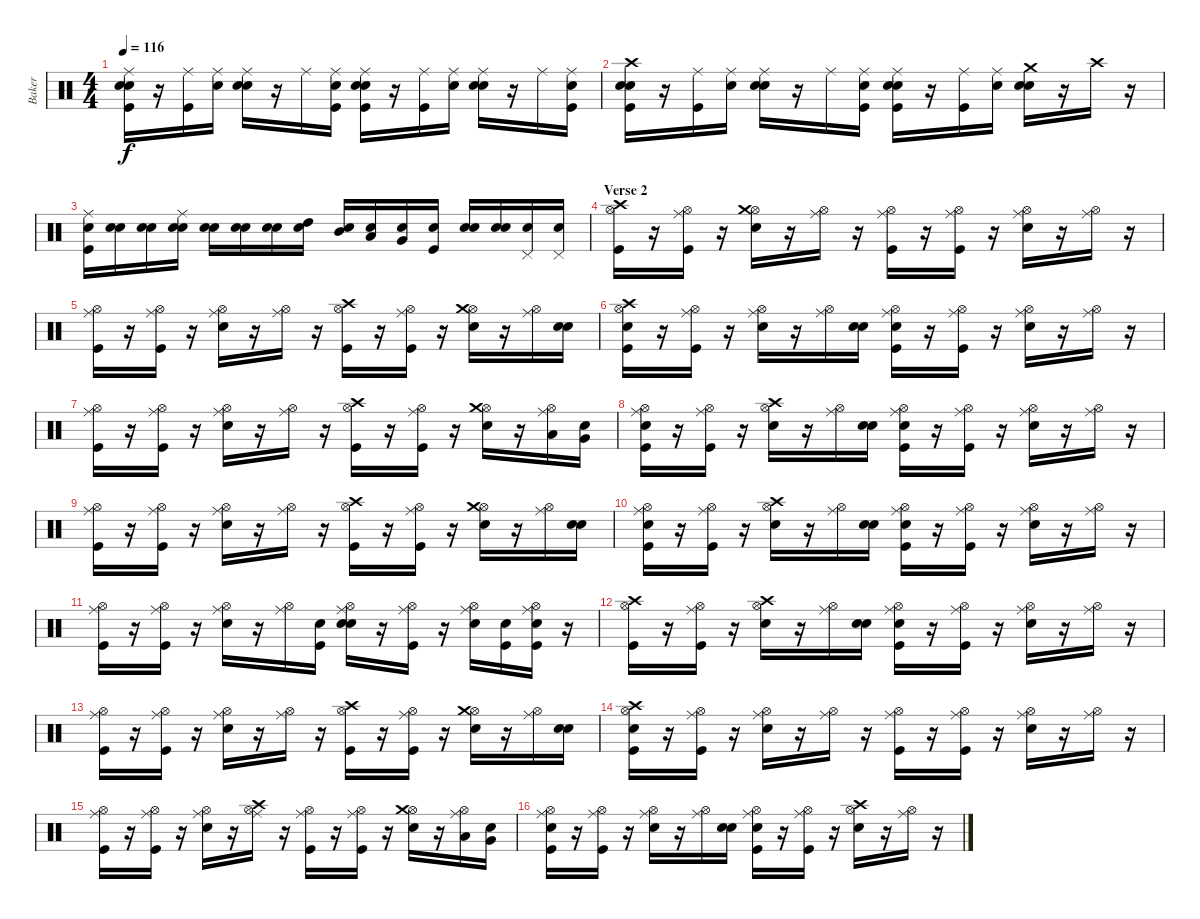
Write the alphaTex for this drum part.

\track ("Baker" "Baker") {instrument percussion}
\staff {score}
\articulation defaults
\ts (4 4)
\tempo 116
\clef neutral
\ks c
("Snare (hit)" "Kick (hit)" "Electric Snare (hit)" "Ride (middle)").16{dy f} r.16 ("Kick (hit)" "Ride (middle)").16 ("Snare (hit)" "Ride (middle)").16 ("Snare (hit)" "Electric Snare (hit)" "Ride (middle)").16 r.16 "Ride (middle)".16 ("Snare (hit)" "Kick (hit)" "Ride (middle)").16 ("Snare (hit)" "Kick (hit)" "Electric Snare (hit)" "Ride (middle)").16 r.16 ("Kick (hit)" "Ride (middle)").16 ("Snare (hit)" "Ride (middle)").16 ("Snare (hit)" "Electric Snare (hit)" "Ride (middle)").16 r.16 "Ride (middle)".16 ("Snare (hit)" "Kick (hit)" "Ride (middle)").16 |
("Snare (hit)" "Kick (hit)" "Electric Snare (hit)" "Crash high (hit)").16 r.16 ("Kick (hit)" "Ride (middle)").16 ("Snare (hit)" "Ride (middle)").16 ("Snare (hit)" "Electric Snare (hit)" "Ride (middle)").16 r.16 "Ride (middle)".16 ("Snare (hit)" "Kick (hit)" "Ride (middle)").16 ("Snare (hit)" "Kick (hit)" "Electric Snare (hit)" "Ride (middle)").16 r.16 ("Kick (hit)" "Ride (middle)").16 ("Snare (hit)" "Ride (middle)").16 ("Snare (hit)" "Electric Snare (hit)" "Crash medium (hit)").16 r.16 "Crash high (hit)".16 r.16 |
("Kick (hit)" "Electric Snare (hit)" "Ride (middle)").16 ("Snare (hit)" "Electric Snare (hit)").16 ("Snare (hit)" "Electric Snare (hit)").16 ("Snare (hit)" "Electric Snare (hit)" "Ride (middle)").16 ("Snare (hit)" "Electric Snare (hit)").16 ("Snare (hit)" "Electric Snare (hit)").16 ("Snare (hit)" "Electric Snare (hit)").16 ("Snare (hit)" "High Tom (hit)").16 ("Snare (hit)" "Mid Tom (hit)").16 ("Snare (hit)" "Low Tom (hit)").16 ("Snare (hit)" "Very Low Tom (hit)").16 ("Snare (hit)" "Kick (hit)").16 ("Snare (hit)" "Electric Snare (hit)").16 ("Snare (hit)" "Electric Snare (hit)").16 ("Snare (hit)" "Pedal Hi-Hat (hit)").16 ("Snare (hit)" "Pedal Hi-Hat (hit)").16 |
\section ("" "Verse 2")
("Kick (hit)" "Hi-Hat (open)" "Crash high (hit)").16 r.16 ("Kick (hit)" "Hi-Hat (open)" "Ride (middle)").16 r.16 ("Electric Snare (hit)" "Hi-Hat (open)" "Crash medium (hit)").16 r.16 ("Hi-Hat (open)" "Ride (middle)").16 r.16 ("Kick (hit)" "Hi-Hat (open)" "Ride (middle)").16 r.16 ("Kick (hit)" "Hi-Hat (open)" "Ride (middle)").16 r.16 ("Electric Snare (hit)" "Hi-Hat (open)" "Ride (middle)").16 r.16 ("Hi-Hat (open)" "Ride (middle)").16 r.16 |
("Kick (hit)" "Hi-Hat (open)" "Ride (middle)").16 r.16 ("Kick (hit)" "Hi-Hat (open)" "Ride (middle)").16 r.16 ("Electric Snare (hit)" "Hi-Hat (open)" "Ride (middle)").16 r.16 ("Hi-Hat (open)" "Ride (middle)").16 r.16 ("Kick (hit)" "Hi-Hat (open)" "Crash high (hit)").16 r.16 ("Kick (hit)" "Hi-Hat (open)" "Ride (middle)").16 r.16 ("Electric Snare (hit)" "Hi-Hat (open)" "Crash medium (hit)").16 r.16 ("Hi-Hat (open)" "Ride (middle)").16 ("Snare (hit)" "Electric Snare (hit)").16 |
("Snare (hit)" "Kick (hit)" "Hi-Hat (open)" "Crash high (hit)").16 r.16 ("Kick (hit)" "Hi-Hat (open)" "Ride (middle)").16 r.16 ("Electric Snare (hit)" "Hi-Hat (open)" "Ride (middle)").16 r.16 ("Hi-Hat (open)" "Ride (middle)").16 ("Snare (hit)" "Electric Snare (hit)").16 ("Snare (hit)" "Kick (hit)" "Hi-Hat (open)" "Ride (middle)").16 r.16 ("Kick (hit)" "Hi-Hat (open)" "Ride (middle)").16 r.16 ("Electric Snare (hit)" "Hi-Hat (open)" "Ride (middle)").16 r.16 ("Hi-Hat (open)" "Ride (middle)").16 r.16 |
("Kick (hit)" "Hi-Hat (open)" "Ride (middle)").16 r.16 ("Kick (hit)" "Hi-Hat (open)" "Ride (middle)").16 r.16 ("Electric Snare (hit)" "Hi-Hat (open)" "Ride (middle)").16 r.16 ("Hi-Hat (open)" "Ride (middle)").16 r.16 ("Kick (hit)" "Hi-Hat (open)" "Crash high (hit)").16 r.16 ("Kick (hit)" "Hi-Hat (open)" "Ride (middle)").16 r.16 ("Electric Snare (hit)" "Hi-Hat (open)" "Crash medium (hit)").16 r.16 ("Low Tom (hit)" "Hi-Hat (open)" "Ride (middle)").16 ("Snare (hit)" "Very Low Tom (hit)").16 |
("Snare (hit)" "Kick (hit)" "Hi-Hat (open)" "Ride (middle)").16 r.16 ("Kick (hit)" "Hi-Hat (open)" "Ride (middle)").16 r.16 ("Electric Snare (hit)" "Hi-Hat (open)" "Crash high (hit)").16 r.16 ("Hi-Hat (open)" "Ride (middle)").16 ("Snare (hit)" "Electric Snare (hit)").16 ("Snare (hit)" "Kick (hit)" "Hi-Hat (open)" "Ride (middle)").16 r.16 ("Kick (hit)" "Hi-Hat (open)" "Ride (middle)").16 r.16 ("Electric Snare (hit)" "Hi-Hat (open)" "Ride (middle)").16 r.16 ("Hi-Hat (open)" "Ride (middle)").16 r.16 |
("Kick (hit)" "Hi-Hat (open)" "Ride (middle)").16 r.16 ("Kick (hit)" "Hi-Hat (open)" "Ride (middle)").16 r.16 ("Electric Snare (hit)" "Hi-Hat (open)" "Ride (middle)").16 r.16 ("Hi-Hat (open)" "Ride (middle)").16 r.16 ("Kick (hit)" "Hi-Hat (open)" "Crash high (hit)").16 r.16 ("Kick (hit)" "Hi-Hat (open)" "Ride (middle)").16 r.16 ("Electric Snare (hit)" "Hi-Hat (open)" "Crash medium (hit)").16 r.16 ("Hi-Hat (open)" "Ride (middle)").16 ("Snare (hit)" "Electric Snare (hit)").16 |
("Snare (hit)" "Kick (hit)" "Hi-Hat (open)" "Ride (middle)").16 r.16 ("Kick (hit)" "Hi-Hat (open)" "Ride (middle)").16 r.16 ("Electric Snare (hit)" "Hi-Hat (open)" "Crash high (hit)").16 r.16 ("Hi-Hat (open)" "Ride (middle)").16 ("Snare (hit)" "Electric Snare (hit)").16 ("Snare (hit)" "Kick (hit)" "Hi-Hat (open)" "Ride (middle)").16 r.16 ("Kick (hit)" "Hi-Hat (open)" "Ride (middle)").16 r.16 ("Electric Snare (hit)" "Hi-Hat (open)" "Ride (middle)").16 r.16 ("Hi-Hat (open)" "Ride (middle)").16 r.16 |
("Kick (hit)" "Hi-Hat (open)" "Ride (middle)").16 r.16 ("Kick (hit)" "Hi-Hat (open)" "Ride (middle)").16 r.16 ("Electric Snare (hit)" "Hi-Hat (open)" "Ride (middle)").16 r.16 ("Hi-Hat (open)" "Ride (middle)").16 ("Snare (hit)" "Kick (hit)").16 ("Snare (hit)" "Electric Snare (hit)" "Hi-Hat (open)" "Ride (middle)").16 r.16 ("Kick (hit)" "Hi-Hat (open)" "Ride (middle)").16 r.16 ("Electric Snare (hit)" "Hi-Hat (open)" "Ride (middle)").16 ("Snare (hit)" "Kick (hit)").16 ("Snare (hit)" "Kick (hit)" "Hi-Hat (open)" "Ride (middle)").16 r.16 |
("Kick (hit)" "Hi-Hat (open)" "Crash high (hit)").16 r.16 ("Kick (hit)" "Hi-Hat (open)" "Ride (middle)").16 r.16 ("Electric Snare (hit)" "Hi-Hat (open)" "Crash high (hit)").16 r.16 ("Hi-Hat (open)" "Ride (middle)").16 ("Snare (hit)" "Electric Snare (hit)").16 ("Snare (hit)" "Kick (hit)" "Hi-Hat (open)" "Ride (middle)").16 r.16 ("Kick (hit)" "Hi-Hat (open)" "Ride (middle)").16 r.16 ("Electric Snare (hit)" "Hi-Hat (open)" "Ride (middle)").16 r.16 ("Hi-Hat (open)" "Ride (middle)").16 r.16 |
("Kick (hit)" "Hi-Hat (open)" "Ride (middle)").16 r.16 ("Kick (hit)" "Hi-Hat (open)" "Ride (middle)").16 r.16 ("Electric Snare (hit)" "Hi-Hat (open)" "Ride (middle)").16 r.16 ("Hi-Hat (open)" "Ride (middle)").16 r.16 ("Kick (hit)" "Hi-Hat (open)" "Crash high (hit)").16 r.16 ("Kick (hit)" "Hi-Hat (open)" "Ride (middle)").16 r.16 ("Electric Snare (hit)" "Hi-Hat (open)" "Crash medium (hit)").16 r.16 ("Hi-Hat (open)" "Ride (middle)").16 ("Snare (hit)" "Electric Snare (hit)").16 |
("Snare (hit)" "Kick (hit)" "Hi-Hat (open)" "Crash high (hit)").16 r.16 ("Kick (hit)" "Hi-Hat (open)" "Ride (middle)").16 r.16 ("Electric Snare (hit)" "Hi-Hat (open)" "Ride (middle)").16 r.16 ("Hi-Hat (open)" "Ride (middle)").16 r.16 ("Kick (hit)" "Hi-Hat (open)" "Ride (middle)").16 r.16 ("Kick (hit)" "Hi-Hat (open)" "Ride (middle)").16 r.16 ("Electric Snare (hit)" "Hi-Hat (open)" "Ride (middle)").16 r.16 ("Hi-Hat (open)" "Ride (middle)").16 r.16 |
("Kick (hit)" "Hi-Hat (open)" "Ride (middle)").16 r.16 ("Kick (hit)" "Hi-Hat (open)" "Ride (middle)").16 r.16 ("Electric Snare (hit)" "Hi-Hat (open)" "Ride (middle)").16 r.16 ("Hi-Hat (open)" "Crash high (hit)" "Ride (middle)").16 r.16 ("Kick (hit)" "Hi-Hat (open)" "Ride (middle)").16 r.16 ("Kick (hit)" "Hi-Hat (open)" "Ride (middle)").16 r.16 ("Electric Snare (hit)" "Hi-Hat (open)" "Crash medium (hit)").16 r.16 ("Low Tom (hit)" "Hi-Hat (open)" "Ride (middle)").16 ("Snare (hit)" "Very Low Tom (hit)").16 |
("Snare (hit)" "Kick (hit)" "Hi-Hat (open)" "Ride (middle)").16 r.16 ("Kick (hit)" "Hi-Hat (open)" "Ride (middle)").16 r.16 ("Electric Snare (hit)" "Hi-Hat (open)" "Ride (middle)").16 r.16 ("Hi-Hat (open)" "Ride (middle)").16 ("Snare (hit)" "Electric Snare (hit)").16 ("Snare (hit)" "Kick (hit)" "Hi-Hat (open)" "Ride (middle)").16 r.16 ("Kick (hit)" "Hi-Hat (open)" "Ride (middle)").16 r.16 ("Electric Snare (hit)" "Hi-Hat (open)" "Crash high (hit)").16 r.16 ("Hi-Hat (open)" "Ride (middle)").16 r.16
